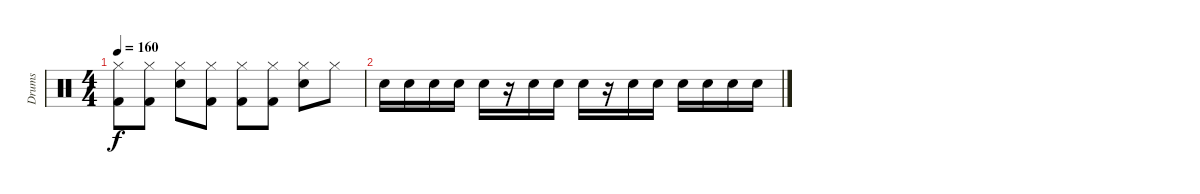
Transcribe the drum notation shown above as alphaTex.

\track ("Drums" "Drums") {instrument percussion}
\staff {score}
\articulation defaults
\ts (4 4)
\tempo 160
\clef neutral
\ks c
("Hi-Hat (closed)" "Kick (hit) 2").8{dy f} ("Hi-Hat (closed)" "Kick (hit) 2").8 ("Hi-Hat (closed)" "Electric Snare (hit)").8 ("Hi-Hat (closed)" "Kick (hit) 2").8 ("Hi-Hat (closed)" "Kick (hit) 2").8 ("Hi-Hat (closed)" "Kick (hit) 2").8 ("Hi-Hat (closed)" "Electric Snare (hit)").8 "Hi-Hat (closed)".8 |
"Electric Snare (hit)".16 "Electric Snare (hit)".16 "Electric Snare (hit)".16 "Electric Snare (hit)".16 "Electric Snare (hit)".16 r.16 "Electric Snare (hit)".16 "Electric Snare (hit)".16 "Electric Snare (hit)".16 r.16 "Electric Snare (hit)".16 "Electric Snare (hit)".16 "Electric Snare (hit)".16 "Electric Snare (hit)".16 "Electric Snare (hit)".16 "Electric Snare (hit)".16
